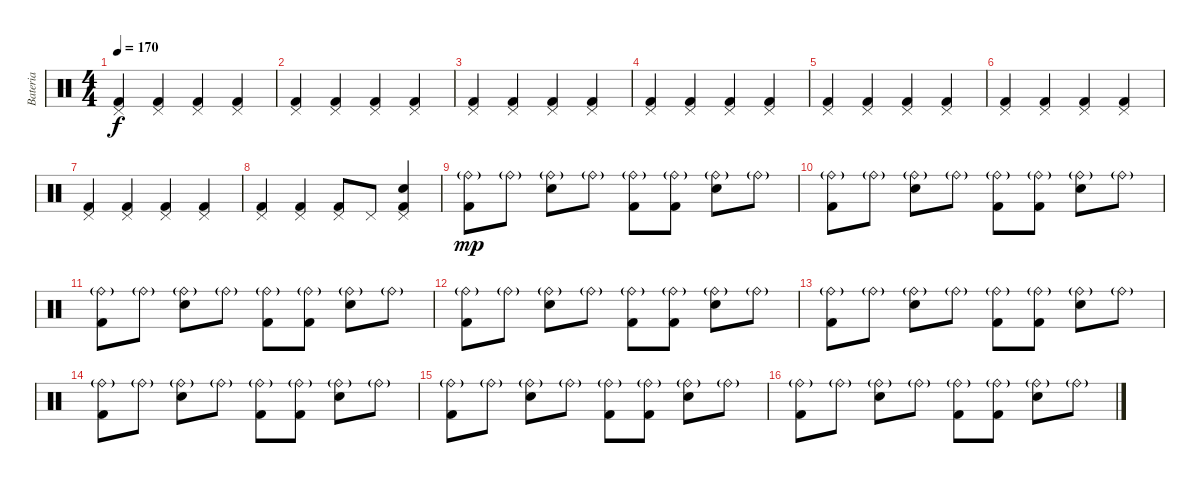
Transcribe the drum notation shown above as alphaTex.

\track ("Bateria" "Bateria") {instrument percussion}
\staff {score}
\articulation defaults
\ts (4 4)
\tempo 170
\clef neutral
\ks c
("Pedal Hi-Hat (hit)" "Kick (hit) 2").4{dy f} ("Pedal Hi-Hat (hit)" "Kick (hit) 2").4 ("Pedal Hi-Hat (hit)" "Kick (hit) 2").4 ("Pedal Hi-Hat (hit)" "Kick (hit) 2").4 |
("Pedal Hi-Hat (hit)" "Kick (hit) 2").4 ("Pedal Hi-Hat (hit)" "Kick (hit) 2").4 ("Pedal Hi-Hat (hit)" "Kick (hit) 2").4 ("Pedal Hi-Hat (hit)" "Kick (hit) 2").4 |
("Pedal Hi-Hat (hit)" "Kick (hit) 2").4 ("Pedal Hi-Hat (hit)" "Kick (hit) 2").4 ("Pedal Hi-Hat (hit)" "Kick (hit) 2").4 ("Pedal Hi-Hat (hit)" "Kick (hit) 2").4 |
("Pedal Hi-Hat (hit)" "Kick (hit) 2").4 ("Pedal Hi-Hat (hit)" "Kick (hit) 2").4 ("Pedal Hi-Hat (hit)" "Kick (hit) 2").4 ("Pedal Hi-Hat (hit)" "Kick (hit) 2").4 |
("Pedal Hi-Hat (hit)" "Kick (hit) 2").4 ("Pedal Hi-Hat (hit)" "Kick (hit) 2").4 ("Pedal Hi-Hat (hit)" "Kick (hit) 2").4 ("Pedal Hi-Hat (hit)" "Kick (hit) 2").4 |
("Pedal Hi-Hat (hit)" "Kick (hit) 2").4 ("Pedal Hi-Hat (hit)" "Kick (hit) 2").4 ("Pedal Hi-Hat (hit)" "Kick (hit) 2").4 ("Pedal Hi-Hat (hit)" "Kick (hit) 2").4 |
("Pedal Hi-Hat (hit)" "Kick (hit) 2").4 ("Pedal Hi-Hat (hit)" "Kick (hit) 2").4 ("Pedal Hi-Hat (hit)" "Kick (hit) 2").4 ("Pedal Hi-Hat (hit)" "Kick (hit) 2").4 |
("Pedal Hi-Hat (hit)" "Kick (hit) 2").4 ("Pedal Hi-Hat (hit)" "Kick (hit) 2").4 ("Pedal Hi-Hat (hit)" "Kick (hit) 2").8 "Pedal Hi-Hat (hit)".8 ("Pedal Hi-Hat (hit)" "Snare (hit) 2" "Kick (hit) 2").4 |
("Ride (bell)"{g} "Kick (hit) 2").8{dy mp} "Ride (bell)"{g}.8 ("Ride (bell)"{g} "Snare (hit) 2").8 "Ride (bell)"{g}.8 ("Ride (bell)"{g} "Kick (hit) 2").8 ("Ride (bell)"{g} "Kick (hit) 2").8 ("Ride (bell)"{g} "Snare (hit) 2").8 "Ride (bell)"{g}.8 |
("Ride (bell)"{g} "Kick (hit) 2").8 "Ride (bell)"{g}.8 ("Ride (bell)"{g} "Snare (hit) 2").8 "Ride (bell)"{g}.8 ("Ride (bell)"{g} "Kick (hit) 2").8 ("Ride (bell)"{g} "Kick (hit) 2").8 ("Ride (bell)"{g} "Snare (hit) 2").8 "Ride (bell)"{g}.8 |
("Ride (bell)"{g} "Kick (hit) 2").8 "Ride (bell)"{g}.8 ("Ride (bell)"{g} "Snare (hit) 2").8 "Ride (bell)"{g}.8 ("Ride (bell)"{g} "Kick (hit) 2").8 ("Ride (bell)"{g} "Kick (hit) 2").8 ("Ride (bell)"{g} "Snare (hit) 2").8 "Ride (bell)"{g}.8 |
("Ride (bell)"{g} "Kick (hit) 2").8 "Ride (bell)"{g}.8 ("Ride (bell)"{g} "Snare (hit) 2").8 "Ride (bell)"{g}.8 ("Ride (bell)"{g} "Kick (hit) 2").8 ("Ride (bell)"{g} "Kick (hit) 2").8 ("Ride (bell)"{g} "Snare (hit) 2").8 "Ride (bell)"{g}.8 |
("Ride (bell)"{g} "Kick (hit) 2").8 "Ride (bell)"{g}.8 ("Ride (bell)"{g} "Snare (hit) 2").8 "Ride (bell)"{g}.8 ("Ride (bell)"{g} "Kick (hit) 2").8 ("Ride (bell)"{g} "Kick (hit) 2").8 ("Ride (bell)"{g} "Snare (hit) 2").8 "Ride (bell)"{g}.8 |
("Ride (bell)"{g} "Kick (hit) 2").8 "Ride (bell)"{g}.8 ("Ride (bell)"{g} "Snare (hit) 2").8 "Ride (bell)"{g}.8 ("Ride (bell)"{g} "Kick (hit) 2").8 ("Ride (bell)"{g} "Kick (hit) 2").8 ("Ride (bell)"{g} "Snare (hit) 2").8 "Ride (bell)"{g}.8 |
("Ride (bell)"{g} "Kick (hit) 2").8 "Ride (bell)"{g}.8 ("Ride (bell)"{g} "Snare (hit) 2").8 "Ride (bell)"{g}.8 ("Ride (bell)"{g} "Kick (hit) 2").8 ("Ride (bell)"{g} "Kick (hit) 2").8 ("Ride (bell)"{g} "Snare (hit) 2").8 "Ride (bell)"{g}.8 |
("Ride (bell)"{g} "Kick (hit) 2").8 "Ride (bell)"{g}.8 ("Ride (bell)"{g} "Snare (hit) 2").8 "Ride (bell)"{g}.8 ("Ride (bell)"{g} "Kick (hit) 2").8 ("Ride (bell)"{g} "Kick (hit) 2").8 ("Ride (bell)"{g} "Snare (hit) 2").8 "Ride (bell)"{g}.8
